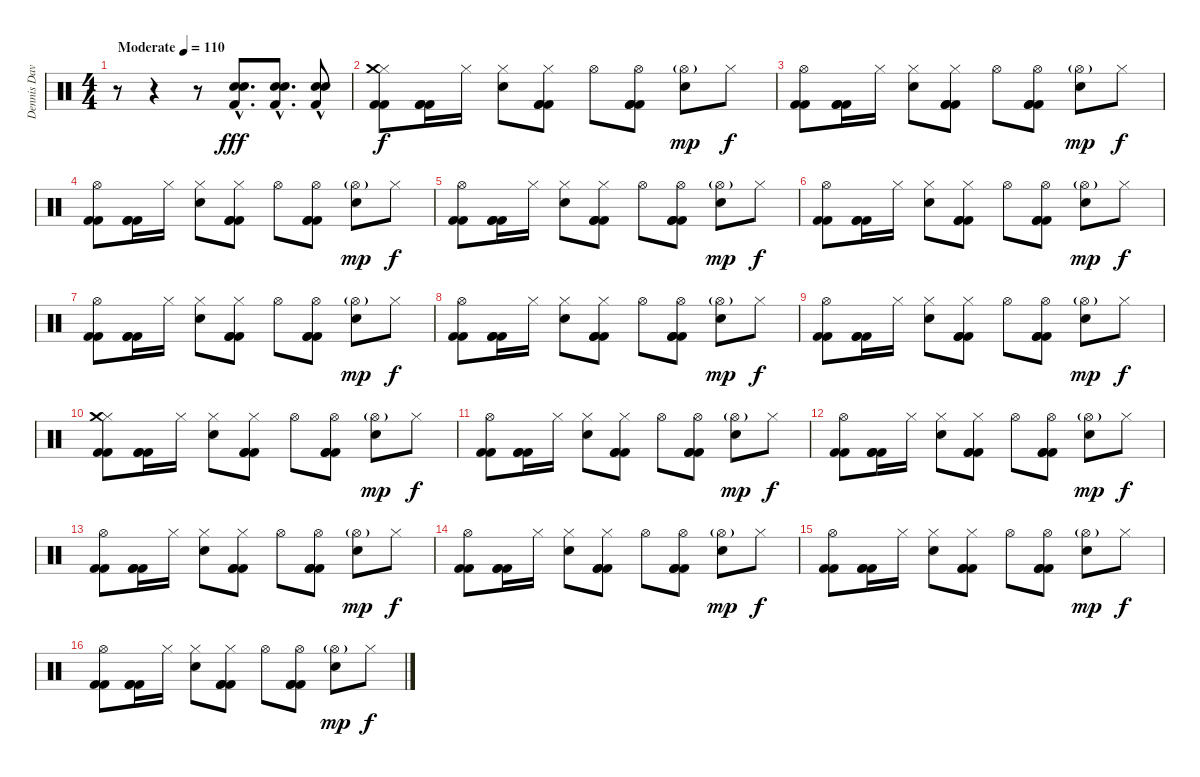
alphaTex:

\track ("Dennis Davis" "Dennis Dav") {instrument percussion}
\staff {score}
\articulation defaults
\ts (4 4)
\tempo (110 "Moderate")
\clef neutral
\ks c
r.8{dy fff} r.4 r.8 ("Electric Snare (hit)"{hac} "Snare (hit) 2" "Kick (hit) 2").8{d} ("Electric Snare (hit)"{hac} "Snare (hit) 2" "Kick (hit) 2").8{d} ("Electric Snare (hit)"{hac} "Snare (hit) 2" "Kick (hit) 2").8 |
("Hi-Hat (closed)" "Crash medium (hit)" "Kick (hit) 2" "Kick (hit) 2").8{dy f} ("Kick (hit) 2" "Kick (hit) 2" "Kick (hit) 2").16 "Hi-Hat (closed)".16 ("Hi-Hat (closed)" "Snare (hit) 2").8 ("Hi-Hat (closed)" "Kick (hit) 2" "Kick (hit) 2" "Kick (hit) 2").8 "Hi-Hat (open)".8 ("Hi-Hat (open)" "Kick (hit) 2" "Kick (hit) 2" "Kick (hit) 2").8 ("Hi-Hat (open)"{g} "Snare (hit) 2").8{dy mp} "Hi-Hat (closed)".8{dy f} |
("Hi-Hat (open)" "Kick (hit) 2" "Kick (hit) 2").8 ("Kick (hit) 2" "Kick (hit) 2" "Kick (hit) 2").16 "Hi-Hat (closed)".16 ("Hi-Hat (closed)" "Snare (hit) 2").8 ("Hi-Hat (closed)" "Kick (hit) 2" "Kick (hit) 2" "Kick (hit) 2").8 "Hi-Hat (open)".8 ("Hi-Hat (open)" "Kick (hit) 2" "Kick (hit) 2" "Kick (hit) 2").8 ("Hi-Hat (open)"{g} "Snare (hit) 2").8{dy mp} "Hi-Hat (closed)".8{dy f} |
("Hi-Hat (open)" "Kick (hit) 2" "Kick (hit) 2").8 ("Kick (hit) 2" "Kick (hit) 2" "Kick (hit) 2").16 "Hi-Hat (closed)".16 ("Hi-Hat (closed)" "Snare (hit) 2").8 ("Hi-Hat (closed)" "Kick (hit) 2" "Kick (hit) 2" "Kick (hit) 2").8 "Hi-Hat (open)".8 ("Hi-Hat (open)" "Kick (hit) 2" "Kick (hit) 2" "Kick (hit) 2").8 ("Hi-Hat (open)"{g} "Snare (hit) 2").8{dy mp} "Hi-Hat (closed)".8{dy f} |
("Hi-Hat (open)" "Kick (hit) 2" "Kick (hit) 2").8 ("Kick (hit) 2" "Kick (hit) 2" "Kick (hit) 2").16 "Hi-Hat (closed)".16 ("Hi-Hat (closed)" "Snare (hit) 2").8 ("Hi-Hat (closed)" "Kick (hit) 2" "Kick (hit) 2" "Kick (hit) 2").8 "Hi-Hat (open)".8 ("Hi-Hat (open)" "Kick (hit) 2" "Kick (hit) 2" "Kick (hit) 2").8 ("Hi-Hat (open)"{g} "Snare (hit) 2").8{dy mp} "Hi-Hat (closed)".8{dy f} |
("Hi-Hat (open)" "Kick (hit) 2" "Kick (hit) 2").8 ("Kick (hit) 2" "Kick (hit) 2" "Kick (hit) 2").16 "Hi-Hat (closed)".16 ("Hi-Hat (closed)" "Snare (hit) 2").8 ("Hi-Hat (closed)" "Kick (hit) 2" "Kick (hit) 2" "Kick (hit) 2").8 "Hi-Hat (open)".8 ("Hi-Hat (open)" "Kick (hit) 2" "Kick (hit) 2" "Kick (hit) 2").8 ("Hi-Hat (open)"{g} "Snare (hit) 2").8{dy mp} "Hi-Hat (closed)".8{dy f} |
("Hi-Hat (open)" "Kick (hit) 2" "Kick (hit) 2").8 ("Kick (hit) 2" "Kick (hit) 2" "Kick (hit) 2").16 "Hi-Hat (closed)".16 ("Hi-Hat (closed)" "Snare (hit) 2").8 ("Hi-Hat (closed)" "Kick (hit) 2" "Kick (hit) 2" "Kick (hit) 2").8 "Hi-Hat (open)".8 ("Hi-Hat (open)" "Kick (hit) 2" "Kick (hit) 2" "Kick (hit) 2").8 ("Hi-Hat (open)"{g} "Snare (hit) 2").8{dy mp} "Hi-Hat (closed)".8{dy f} |
("Hi-Hat (open)" "Kick (hit) 2" "Kick (hit) 2").8 ("Kick (hit) 2" "Kick (hit) 2" "Kick (hit) 2").16 "Hi-Hat (closed)".16 ("Hi-Hat (closed)" "Snare (hit) 2").8 ("Hi-Hat (closed)" "Kick (hit) 2" "Kick (hit) 2" "Kick (hit) 2").8 "Hi-Hat (open)".8 ("Hi-Hat (open)" "Kick (hit) 2" "Kick (hit) 2" "Kick (hit) 2").8 ("Hi-Hat (open)"{g} "Snare (hit) 2").8{dy mp} "Hi-Hat (closed)".8{dy f} |
("Hi-Hat (open)" "Kick (hit) 2" "Kick (hit) 2").8 ("Kick (hit) 2" "Kick (hit) 2" "Kick (hit) 2").16 "Hi-Hat (closed)".16 ("Hi-Hat (closed)" "Snare (hit) 2").8 ("Hi-Hat (closed)" "Kick (hit) 2" "Kick (hit) 2" "Kick (hit) 2").8 "Hi-Hat (open)".8 ("Hi-Hat (open)" "Kick (hit) 2" "Kick (hit) 2" "Kick (hit) 2").8 ("Hi-Hat (open)"{g} "Snare (hit) 2").8{dy mp} "Hi-Hat (closed)".8{dy f} |
("Hi-Hat (closed)" "Crash medium (hit)" "Kick (hit) 2" "Kick (hit) 2").8 ("Kick (hit) 2" "Kick (hit) 2" "Kick (hit) 2").16 "Hi-Hat (closed)".16 ("Hi-Hat (closed)" "Snare (hit) 2").8 ("Hi-Hat (closed)" "Kick (hit) 2" "Kick (hit) 2" "Kick (hit) 2").8 "Hi-Hat (open)".8 ("Hi-Hat (open)" "Kick (hit) 2" "Kick (hit) 2" "Kick (hit) 2").8 ("Hi-Hat (open)"{g} "Snare (hit) 2").8{dy mp} "Hi-Hat (closed)".8{dy f} |
("Hi-Hat (open)" "Kick (hit) 2" "Kick (hit) 2").8 ("Kick (hit) 2" "Kick (hit) 2" "Kick (hit) 2").16 "Hi-Hat (closed)".16 ("Hi-Hat (closed)" "Snare (hit) 2").8 ("Hi-Hat (closed)" "Kick (hit) 2" "Kick (hit) 2" "Kick (hit) 2").8 "Hi-Hat (open)".8 ("Hi-Hat (open)" "Kick (hit) 2" "Kick (hit) 2" "Kick (hit) 2").8 ("Hi-Hat (open)"{g} "Snare (hit) 2").8{dy mp} "Hi-Hat (closed)".8{dy f} |
("Hi-Hat (open)" "Kick (hit) 2" "Kick (hit) 2").8 ("Kick (hit) 2" "Kick (hit) 2" "Kick (hit) 2").16 "Hi-Hat (closed)".16 ("Hi-Hat (closed)" "Snare (hit) 2").8 ("Hi-Hat (closed)" "Kick (hit) 2" "Kick (hit) 2" "Kick (hit) 2").8 "Hi-Hat (open)".8 ("Hi-Hat (open)" "Kick (hit) 2" "Kick (hit) 2" "Kick (hit) 2").8 ("Hi-Hat (open)"{g} "Snare (hit) 2").8{dy mp} "Hi-Hat (closed)".8{dy f} |
("Hi-Hat (open)" "Kick (hit) 2" "Kick (hit) 2").8 ("Kick (hit) 2" "Kick (hit) 2" "Kick (hit) 2").16 "Hi-Hat (closed)".16 ("Hi-Hat (closed)" "Snare (hit) 2").8 ("Hi-Hat (closed)" "Kick (hit) 2" "Kick (hit) 2" "Kick (hit) 2").8 "Hi-Hat (open)".8 ("Hi-Hat (open)" "Kick (hit) 2" "Kick (hit) 2" "Kick (hit) 2").8 ("Hi-Hat (open)"{g} "Snare (hit) 2").8{dy mp} "Hi-Hat (closed)".8{dy f} |
("Hi-Hat (open)" "Kick (hit) 2" "Kick (hit) 2").8 ("Kick (hit) 2" "Kick (hit) 2" "Kick (hit) 2").16 "Hi-Hat (closed)".16 ("Hi-Hat (closed)" "Snare (hit) 2").8 ("Hi-Hat (closed)" "Kick (hit) 2" "Kick (hit) 2" "Kick (hit) 2").8 "Hi-Hat (open)".8 ("Hi-Hat (open)" "Kick (hit) 2" "Kick (hit) 2" "Kick (hit) 2").8 ("Hi-Hat (open)"{g} "Snare (hit) 2").8{dy mp} "Hi-Hat (closed)".8{dy f} |
("Hi-Hat (open)" "Kick (hit) 2" "Kick (hit) 2").8 ("Kick (hit) 2" "Kick (hit) 2" "Kick (hit) 2").16 "Hi-Hat (closed)".16 ("Hi-Hat (closed)" "Snare (hit) 2").8 ("Hi-Hat (closed)" "Kick (hit) 2" "Kick (hit) 2" "Kick (hit) 2").8 "Hi-Hat (open)".8 ("Hi-Hat (open)" "Kick (hit) 2" "Kick (hit) 2" "Kick (hit) 2").8 ("Hi-Hat (open)"{g} "Snare (hit) 2").8{dy mp} "Hi-Hat (closed)".8{dy f} |
("Hi-Hat (open)" "Kick (hit) 2" "Kick (hit) 2").8 ("Kick (hit) 2" "Kick (hit) 2" "Kick (hit) 2").16 "Hi-Hat (closed)".16 ("Hi-Hat (closed)" "Snare (hit) 2").8 ("Hi-Hat (closed)" "Kick (hit) 2" "Kick (hit) 2" "Kick (hit) 2").8 "Hi-Hat (open)".8 ("Hi-Hat (open)" "Kick (hit) 2" "Kick (hit) 2" "Kick (hit) 2").8 ("Hi-Hat (open)"{g} "Snare (hit) 2").8{dy mp} "Hi-Hat (closed)".8{dy f}
